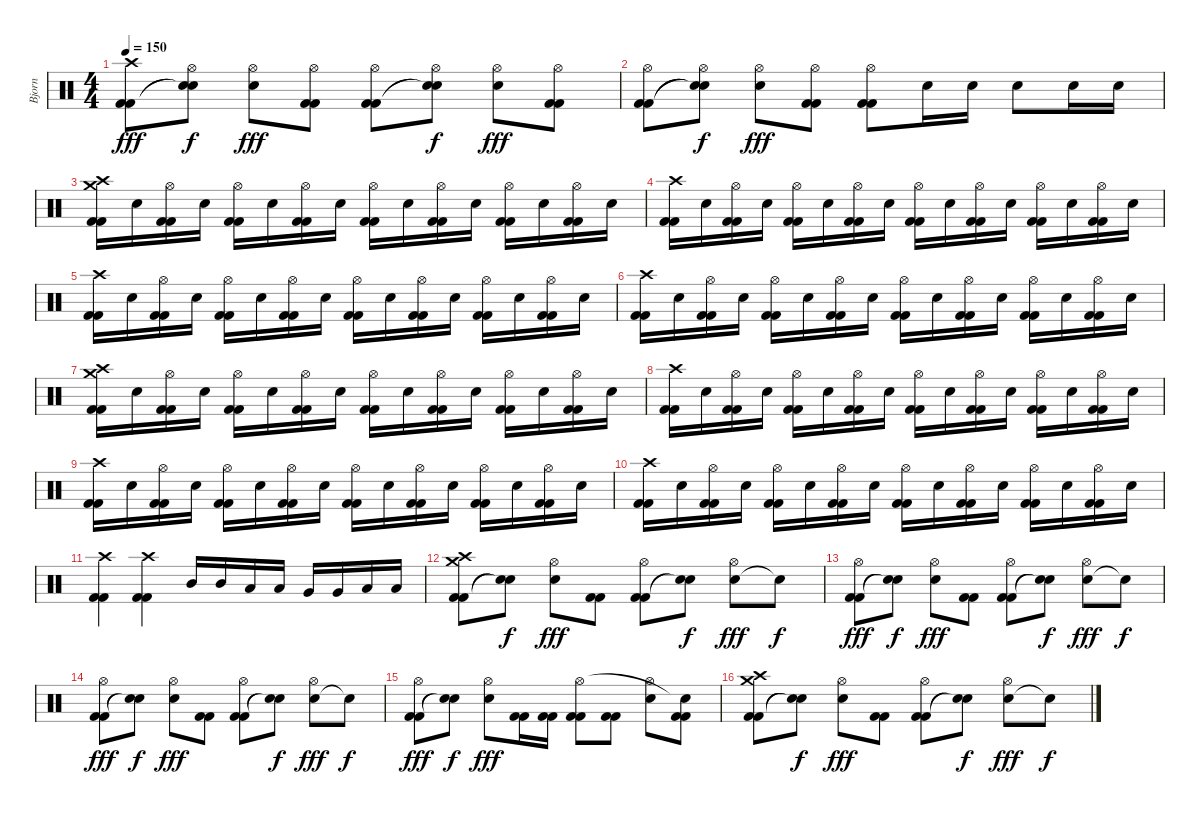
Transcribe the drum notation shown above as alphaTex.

\track ("Bjorn" "Bjorn") {instrument percussion}
\staff {score}
\articulation defaults
\ts (4 4)
\tempo 150
\clef neutral
\ks c
("Kick (hit) 2" "Kick (hit) 2" "Crash high (hit)").8{dy fff} ("Snare (hit)"{t} "Snare (hit)"{t} "Hi-Hat (open)").8{dy f} ("Snare (hit) 2" "Hi-Hat (open)").8{dy fff} ("Kick (hit) 2" "Kick (hit) 2" "Hi-Hat (open)").8 ("Kick (hit) 2" "Kick (hit) 2" "Hi-Hat (open)").8 ("Snare (hit)"{t} "Snare (hit)"{t} "Hi-Hat (open)").8{dy f} ("Snare (hit) 2" "Hi-Hat (open)").8{dy fff} ("Kick (hit) 2" "Kick (hit) 2" "Hi-Hat (open)").8 |
("Kick (hit) 2" "Kick (hit) 2" "Hi-Hat (open)").8 ("Snare (hit)"{t} "Snare (hit)"{t} "Hi-Hat (open)").8{dy f} ("Snare (hit) 2" "Hi-Hat (open)").8{dy fff} ("Kick (hit) 2" "Kick (hit) 2" "Hi-Hat (open)").8 ("Kick (hit) 2" "Kick (hit) 2" "Hi-Hat (open)").8 "Snare (hit) 2".16 "Snare (hit) 2".16 "Snare (hit) 2".8 "Snare (hit) 2".16 "Snare (hit) 2".16 |
("Kick (hit) 2" "Kick (hit) 2" "Crash high (hit)" "Crash medium (hit)").16 "Snare (hit) 2".16 ("Kick (hit) 2" "Kick (hit) 2" "Hi-Hat (open)").16 "Snare (hit) 2".16 ("Kick (hit) 2" "Kick (hit) 2" "Hi-Hat (open)").16 "Snare (hit) 2".16 ("Kick (hit) 2" "Kick (hit) 2" "Hi-Hat (open)").16 "Snare (hit) 2".16 ("Kick (hit) 2" "Kick (hit) 2" "Hi-Hat (open)").16 "Snare (hit) 2".16 ("Kick (hit) 2" "Kick (hit) 2" "Hi-Hat (open)").16 "Snare (hit) 2".16 ("Kick (hit) 2" "Kick (hit) 2" "Hi-Hat (open)").16 "Snare (hit) 2".16 ("Kick (hit) 2" "Kick (hit) 2" "Hi-Hat (open)").16 "Snare (hit) 2".16 |
("Kick (hit) 2" "Kick (hit) 2" "Crash high (hit)").16 "Snare (hit) 2".16 ("Kick (hit) 2" "Kick (hit) 2" "Hi-Hat (open)").16 "Snare (hit) 2".16 ("Kick (hit) 2" "Kick (hit) 2" "Hi-Hat (open)").16 "Snare (hit) 2".16 ("Kick (hit) 2" "Kick (hit) 2" "Hi-Hat (open)").16 "Snare (hit) 2".16 ("Kick (hit) 2" "Kick (hit) 2" "Hi-Hat (open)").16 "Snare (hit) 2".16 ("Kick (hit) 2" "Kick (hit) 2" "Hi-Hat (open)").16 "Snare (hit) 2".16 ("Kick (hit) 2" "Kick (hit) 2" "Hi-Hat (open)").16 "Snare (hit) 2".16 ("Kick (hit) 2" "Kick (hit) 2" "Hi-Hat (open)").16 "Snare (hit) 2".16 |
("Kick (hit) 2" "Kick (hit) 2" "Crash high (hit)").16 "Snare (hit) 2".16 ("Kick (hit) 2" "Kick (hit) 2" "Hi-Hat (open)").16 "Snare (hit) 2".16 ("Kick (hit) 2" "Kick (hit) 2" "Hi-Hat (open)").16 "Snare (hit) 2".16 ("Kick (hit) 2" "Kick (hit) 2" "Hi-Hat (open)").16 "Snare (hit) 2".16 ("Kick (hit) 2" "Kick (hit) 2" "Hi-Hat (open)").16 "Snare (hit) 2".16 ("Kick (hit) 2" "Kick (hit) 2" "Hi-Hat (open)").16 "Snare (hit) 2".16 ("Kick (hit) 2" "Kick (hit) 2" "Hi-Hat (open)").16 "Snare (hit) 2".16 ("Kick (hit) 2" "Kick (hit) 2" "Hi-Hat (open)").16 "Snare (hit) 2".16 |
("Kick (hit) 2" "Kick (hit) 2" "Crash high (hit)").16 "Snare (hit) 2".16 ("Kick (hit) 2" "Kick (hit) 2" "Hi-Hat (open)").16 "Snare (hit) 2".16 ("Kick (hit) 2" "Kick (hit) 2" "Hi-Hat (open)").16 "Snare (hit) 2".16 ("Kick (hit) 2" "Kick (hit) 2" "Hi-Hat (open)").16 "Snare (hit) 2".16 ("Kick (hit) 2" "Kick (hit) 2" "Hi-Hat (open)").16 "Snare (hit) 2".16 ("Kick (hit) 2" "Kick (hit) 2" "Hi-Hat (open)").16 "Snare (hit) 2".16 ("Kick (hit) 2" "Kick (hit) 2" "Hi-Hat (open)").16 "Snare (hit) 2".16 ("Kick (hit) 2" "Kick (hit) 2" "Hi-Hat (open)").16 "Snare (hit) 2".16 |
("Kick (hit) 2" "Kick (hit) 2" "Crash high (hit)" "Crash medium (hit)").16 "Snare (hit) 2".16 ("Kick (hit) 2" "Kick (hit) 2" "Hi-Hat (open)").16 "Snare (hit) 2".16 ("Kick (hit) 2" "Kick (hit) 2" "Hi-Hat (open)").16 "Snare (hit) 2".16 ("Kick (hit) 2" "Kick (hit) 2" "Hi-Hat (open)").16 "Snare (hit) 2".16 ("Kick (hit) 2" "Kick (hit) 2" "Hi-Hat (open)").16 "Snare (hit) 2".16 ("Kick (hit) 2" "Kick (hit) 2" "Hi-Hat (open)").16 "Snare (hit) 2".16 ("Kick (hit) 2" "Kick (hit) 2" "Hi-Hat (open)").16 "Snare (hit) 2".16 ("Kick (hit) 2" "Kick (hit) 2" "Hi-Hat (open)").16 "Snare (hit) 2".16 |
("Kick (hit) 2" "Kick (hit) 2" "Crash high (hit)").16 "Snare (hit) 2".16 ("Kick (hit) 2" "Kick (hit) 2" "Hi-Hat (open)").16 "Snare (hit) 2".16 ("Kick (hit) 2" "Kick (hit) 2" "Hi-Hat (open)").16 "Snare (hit) 2".16 ("Kick (hit) 2" "Kick (hit) 2" "Hi-Hat (open)").16 "Snare (hit) 2".16 ("Kick (hit) 2" "Kick (hit) 2" "Hi-Hat (open)").16 "Snare (hit) 2".16 ("Kick (hit) 2" "Kick (hit) 2" "Hi-Hat (open)").16 "Snare (hit) 2".16 ("Kick (hit) 2" "Kick (hit) 2" "Hi-Hat (open)").16 "Snare (hit) 2".16 ("Kick (hit) 2" "Kick (hit) 2" "Hi-Hat (open)").16 "Snare (hit) 2".16 |
("Kick (hit) 2" "Kick (hit) 2" "Crash high (hit)").16 "Snare (hit) 2".16 ("Kick (hit) 2" "Kick (hit) 2" "Hi-Hat (open)").16 "Snare (hit) 2".16 ("Kick (hit) 2" "Kick (hit) 2" "Hi-Hat (open)").16 "Snare (hit) 2".16 ("Kick (hit) 2" "Kick (hit) 2" "Hi-Hat (open)").16 "Snare (hit) 2".16 ("Kick (hit) 2" "Kick (hit) 2" "Hi-Hat (open)").16 "Snare (hit) 2".16 ("Kick (hit) 2" "Kick (hit) 2" "Hi-Hat (open)").16 "Snare (hit) 2".16 ("Kick (hit) 2" "Kick (hit) 2" "Hi-Hat (open)").16 "Snare (hit) 2".16 ("Kick (hit) 2" "Kick (hit) 2" "Hi-Hat (open)").16 "Snare (hit) 2".16 |
("Kick (hit) 2" "Kick (hit) 2" "Crash high (hit)").16 "Snare (hit) 2".16 ("Kick (hit) 2" "Kick (hit) 2" "Hi-Hat (open)").16 "Snare (hit) 2".16 ("Kick (hit) 2" "Kick (hit) 2" "Hi-Hat (open)").16 "Snare (hit) 2".16 ("Kick (hit) 2" "Kick (hit) 2" "Hi-Hat (open)").16 "Snare (hit) 2".16 ("Kick (hit) 2" "Kick (hit) 2" "Hi-Hat (open)").16 "Snare (hit) 2".16 ("Kick (hit) 2" "Kick (hit) 2" "Hi-Hat (open)").16 "Snare (hit) 2".16 ("Kick (hit) 2" "Kick (hit) 2" "Hi-Hat (open)").16 "Snare (hit) 2".16 ("Kick (hit) 2" "Kick (hit) 2" "Hi-Hat (open)").16 "Snare (hit) 2".16 |
("Kick (hit) 2" "Kick (hit) 2" "Crash high (hit)").4 ("Kick (hit) 2" "Kick (hit) 2" "Crash high (hit)").4 "Mid Tom (hit)".16 "Mid Tom (hit)".16 "Low Tom (hit)".16 "Low Tom (hit)".16 "Very Low Tom (hit)".16 "Very Low Tom (hit)".16 "Low Floor Tom (hit)".16 "Low Floor Tom (hit)".16 |
("Kick (hit) 2" "Kick (hit) 2" "Crash high (hit)" "Crash medium (hit)").8 ("Snare (hit)"{t} "Snare (hit)"{t}).8{dy f} ("Snare (hit) 2" "Hi-Hat (open)").8{dy fff} ("Kick (hit) 2" "Kick (hit) 2").8 ("Kick (hit) 2" "Kick (hit) 2" "Hi-Hat (open)").8 ("Snare (hit)"{t} "Snare (hit)"{t}).8{dy f} ("Snare (hit) 2" "Hi-Hat (open)").8{dy fff} "Snare (hit)"{t}.8{dy f} |
("Kick (hit) 2" "Kick (hit) 2" "Hi-Hat (open)").8{dy fff} ("Snare (hit)"{t} "Snare (hit)"{t}).8{dy f} ("Snare (hit) 2" "Hi-Hat (open)").8{dy fff} ("Kick (hit) 2" "Kick (hit) 2").8 ("Kick (hit) 2" "Kick (hit) 2" "Hi-Hat (open)").8 ("Snare (hit)"{t} "Snare (hit)"{t}).8{dy f} ("Snare (hit) 2" "Hi-Hat (open)").8{dy fff} "Snare (hit)"{t}.8{dy f} |
("Kick (hit) 2" "Kick (hit) 2" "Hi-Hat (open)").8{dy fff} ("Snare (hit)"{t} "Snare (hit)"{t}).8{dy f} ("Snare (hit) 2" "Hi-Hat (open)").8{dy fff} ("Kick (hit) 2" "Kick (hit) 2").8 ("Kick (hit) 2" "Kick (hit) 2" "Hi-Hat (open)").8 ("Snare (hit)"{t} "Snare (hit)"{t}).8{dy f} ("Snare (hit) 2" "Hi-Hat (open)").8{dy fff} "Snare (hit)"{t}.8{dy f} |
("Kick (hit) 2" "Kick (hit) 2" "Hi-Hat (open)").8{dy fff} ("Snare (hit)"{t} "Snare (hit)"{t}).8{dy f} ("Snare (hit) 2" "Hi-Hat (open)").8{dy fff} ("Kick (hit) 2" "Kick (hit) 2").16 ("Kick (hit) 2" "Kick (hit) 2").16 ("Kick (hit) 2" "Kick (hit) 2" "Hi-Hat (open)").8 ("Kick (hit) 2" "Kick (hit) 2").8 ("Snare (hit) 2" "Hi-Hat (open)").8 ("Kick (hit) 2" "Kick (hit) 2" "Snare (hit)"{t}).8 |
("Kick (hit) 2" "Kick (hit) 2" "Crash high (hit)" "Crash medium (hit)").8 ("Snare (hit)"{t} "Snare (hit)"{t}).8{dy f} ("Snare (hit) 2" "Hi-Hat (open)").8{dy fff} ("Kick (hit) 2" "Kick (hit) 2").8 ("Kick (hit) 2" "Kick (hit) 2" "Hi-Hat (open)").8 ("Snare (hit)"{t} "Snare (hit)"{t}).8{dy f} ("Snare (hit) 2" "Hi-Hat (open)").8{dy fff} "Snare (hit)"{t}.8{dy f}
